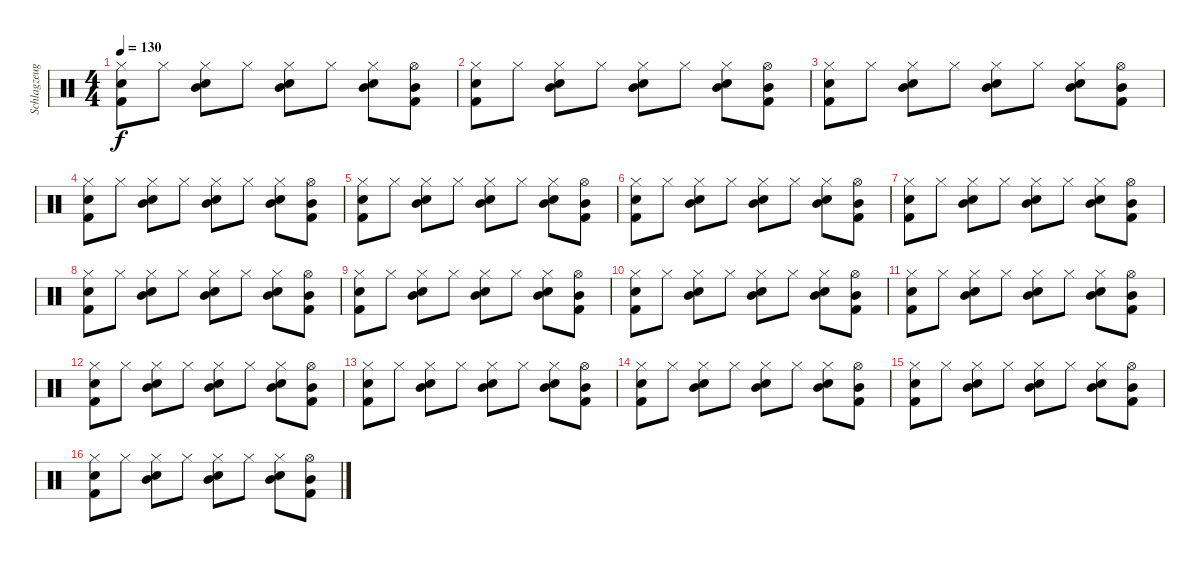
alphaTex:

\track ("Schlagzeug" "Schlagzeug") {instrument percussion}
\staff {score}
\articulation defaults
\ts (4 4)
\tempo 130
\clef neutral
\ks c
("Hi-Hat (closed)" "Snare (hit) 2" "Kick (hit) 2").8{dy f} "Hi-Hat (closed)".8 ("Hi-Hat (closed)" "Mid Tom (hit)" "Snare (hit) 2").8 "Hi-Hat (closed)".8 ("Hi-Hat (closed)" "Mid Tom (hit)" "Snare (hit) 2").8 "Hi-Hat (closed)".8 ("Hi-Hat (closed)" "Mid Tom (hit)" "Snare (hit) 2").8 ("Hi-Hat (open)" "Mid Tom (hit)" "Kick (hit) 2").8 |
("Hi-Hat (closed)" "Snare (hit) 2" "Kick (hit) 2").8 "Hi-Hat (closed)".8 ("Hi-Hat (closed)" "Mid Tom (hit)" "Snare (hit) 2").8 "Hi-Hat (closed)".8 ("Hi-Hat (closed)" "Mid Tom (hit)" "Snare (hit) 2").8 "Hi-Hat (closed)".8 ("Hi-Hat (closed)" "Mid Tom (hit)" "Snare (hit) 2").8 ("Hi-Hat (open)" "Mid Tom (hit)" "Kick (hit) 2").8 |
("Hi-Hat (closed)" "Snare (hit) 2" "Kick (hit) 2").8 "Hi-Hat (closed)".8 ("Hi-Hat (closed)" "Mid Tom (hit)" "Snare (hit) 2").8 "Hi-Hat (closed)".8 ("Hi-Hat (closed)" "Mid Tom (hit)" "Snare (hit) 2").8 "Hi-Hat (closed)".8 ("Hi-Hat (closed)" "Mid Tom (hit)" "Snare (hit) 2").8 ("Hi-Hat (open)" "Mid Tom (hit)" "Kick (hit) 2").8 |
("Hi-Hat (closed)" "Snare (hit) 2" "Kick (hit) 2").8 "Hi-Hat (closed)".8 ("Hi-Hat (closed)" "Mid Tom (hit)" "Snare (hit) 2").8 "Hi-Hat (closed)".8 ("Hi-Hat (closed)" "Mid Tom (hit)" "Snare (hit) 2").8 "Hi-Hat (closed)".8 ("Hi-Hat (closed)" "Mid Tom (hit)" "Snare (hit) 2").8 ("Hi-Hat (open)" "Mid Tom (hit)" "Kick (hit) 2").8 |
("Hi-Hat (closed)" "Snare (hit) 2" "Kick (hit) 2").8 "Hi-Hat (closed)".8 ("Hi-Hat (closed)" "Mid Tom (hit)" "Snare (hit) 2").8 "Hi-Hat (closed)".8 ("Hi-Hat (closed)" "Mid Tom (hit)" "Snare (hit) 2").8 "Hi-Hat (closed)".8 ("Hi-Hat (closed)" "Mid Tom (hit)" "Snare (hit) 2").8 ("Hi-Hat (open)" "Mid Tom (hit)" "Kick (hit) 2").8 |
("Hi-Hat (closed)" "Snare (hit) 2" "Kick (hit) 2").8 "Hi-Hat (closed)".8 ("Hi-Hat (closed)" "Mid Tom (hit)" "Snare (hit) 2").8 "Hi-Hat (closed)".8 ("Hi-Hat (closed)" "Mid Tom (hit)" "Snare (hit) 2").8 "Hi-Hat (closed)".8 ("Hi-Hat (closed)" "Mid Tom (hit)" "Snare (hit) 2").8 ("Hi-Hat (open)" "Mid Tom (hit)" "Kick (hit) 2").8 |
("Hi-Hat (closed)" "Snare (hit) 2" "Kick (hit) 2").8 "Hi-Hat (closed)".8 ("Hi-Hat (closed)" "Mid Tom (hit)" "Snare (hit) 2").8 "Hi-Hat (closed)".8 ("Hi-Hat (closed)" "Mid Tom (hit)" "Snare (hit) 2").8 "Hi-Hat (closed)".8 ("Hi-Hat (closed)" "Mid Tom (hit)" "Snare (hit) 2").8 ("Hi-Hat (open)" "Mid Tom (hit)" "Kick (hit) 2").8 |
("Hi-Hat (closed)" "Snare (hit) 2" "Kick (hit) 2").8 "Hi-Hat (closed)".8 ("Hi-Hat (closed)" "Mid Tom (hit)" "Snare (hit) 2").8 "Hi-Hat (closed)".8 ("Hi-Hat (closed)" "Mid Tom (hit)" "Snare (hit) 2").8 "Hi-Hat (closed)".8 ("Hi-Hat (closed)" "Mid Tom (hit)" "Snare (hit) 2").8 ("Hi-Hat (open)" "Mid Tom (hit)" "Kick (hit) 2").8 |
("Hi-Hat (closed)" "Snare (hit) 2" "Kick (hit) 2").8 "Hi-Hat (closed)".8 ("Hi-Hat (closed)" "Mid Tom (hit)" "Snare (hit) 2").8 "Hi-Hat (closed)".8 ("Hi-Hat (closed)" "Mid Tom (hit)" "Snare (hit) 2").8 "Hi-Hat (closed)".8 ("Hi-Hat (closed)" "Mid Tom (hit)" "Snare (hit) 2").8 ("Hi-Hat (open)" "Mid Tom (hit)" "Kick (hit) 2").8 |
("Hi-Hat (closed)" "Snare (hit) 2" "Kick (hit) 2").8 "Hi-Hat (closed)".8 ("Hi-Hat (closed)" "Mid Tom (hit)" "Snare (hit) 2").8 "Hi-Hat (closed)".8 ("Hi-Hat (closed)" "Mid Tom (hit)" "Snare (hit) 2").8 "Hi-Hat (closed)".8 ("Hi-Hat (closed)" "Mid Tom (hit)" "Snare (hit) 2").8 ("Hi-Hat (open)" "Mid Tom (hit)" "Kick (hit) 2").8 |
("Hi-Hat (closed)" "Snare (hit) 2" "Kick (hit) 2").8 "Hi-Hat (closed)".8 ("Hi-Hat (closed)" "Mid Tom (hit)" "Snare (hit) 2").8 "Hi-Hat (closed)".8 ("Hi-Hat (closed)" "Mid Tom (hit)" "Snare (hit) 2").8 "Hi-Hat (closed)".8 ("Hi-Hat (closed)" "Mid Tom (hit)" "Snare (hit) 2").8 ("Hi-Hat (open)" "Mid Tom (hit)" "Kick (hit) 2").8 |
("Hi-Hat (closed)" "Snare (hit) 2" "Kick (hit) 2").8 "Hi-Hat (closed)".8 ("Hi-Hat (closed)" "Mid Tom (hit)" "Snare (hit) 2").8 "Hi-Hat (closed)".8 ("Hi-Hat (closed)" "Mid Tom (hit)" "Snare (hit) 2").8 "Hi-Hat (closed)".8 ("Hi-Hat (closed)" "Mid Tom (hit)" "Snare (hit) 2").8 ("Hi-Hat (open)" "Mid Tom (hit)" "Kick (hit) 2").8 |
("Hi-Hat (closed)" "Snare (hit) 2" "Kick (hit) 2").8 "Hi-Hat (closed)".8 ("Hi-Hat (closed)" "Mid Tom (hit)" "Snare (hit) 2").8 "Hi-Hat (closed)".8 ("Hi-Hat (closed)" "Mid Tom (hit)" "Snare (hit) 2").8 "Hi-Hat (closed)".8 ("Hi-Hat (closed)" "Mid Tom (hit)" "Snare (hit) 2").8 ("Hi-Hat (open)" "Mid Tom (hit)" "Kick (hit) 2").8 |
("Hi-Hat (closed)" "Snare (hit) 2" "Kick (hit) 2").8 "Hi-Hat (closed)".8 ("Hi-Hat (closed)" "Mid Tom (hit)" "Snare (hit) 2").8 "Hi-Hat (closed)".8 ("Hi-Hat (closed)" "Mid Tom (hit)" "Snare (hit) 2").8 "Hi-Hat (closed)".8 ("Hi-Hat (closed)" "Mid Tom (hit)" "Snare (hit) 2").8 ("Hi-Hat (open)" "Mid Tom (hit)" "Kick (hit) 2").8 |
("Hi-Hat (closed)" "Snare (hit) 2" "Kick (hit) 2").8 "Hi-Hat (closed)".8 ("Hi-Hat (closed)" "Mid Tom (hit)" "Snare (hit) 2").8 "Hi-Hat (closed)".8 ("Hi-Hat (closed)" "Mid Tom (hit)" "Snare (hit) 2").8 "Hi-Hat (closed)".8 ("Hi-Hat (closed)" "Mid Tom (hit)" "Snare (hit) 2").8 ("Hi-Hat (open)" "Mid Tom (hit)" "Kick (hit) 2").8 |
("Hi-Hat (closed)" "Snare (hit) 2" "Kick (hit) 2").8 "Hi-Hat (closed)".8 ("Hi-Hat (closed)" "Mid Tom (hit)" "Snare (hit) 2").8 "Hi-Hat (closed)".8 ("Hi-Hat (closed)" "Mid Tom (hit)" "Snare (hit) 2").8 "Hi-Hat (closed)".8 ("Hi-Hat (closed)" "Mid Tom (hit)" "Snare (hit) 2").8 ("Hi-Hat (open)" "Mid Tom (hit)" "Kick (hit) 2").8
